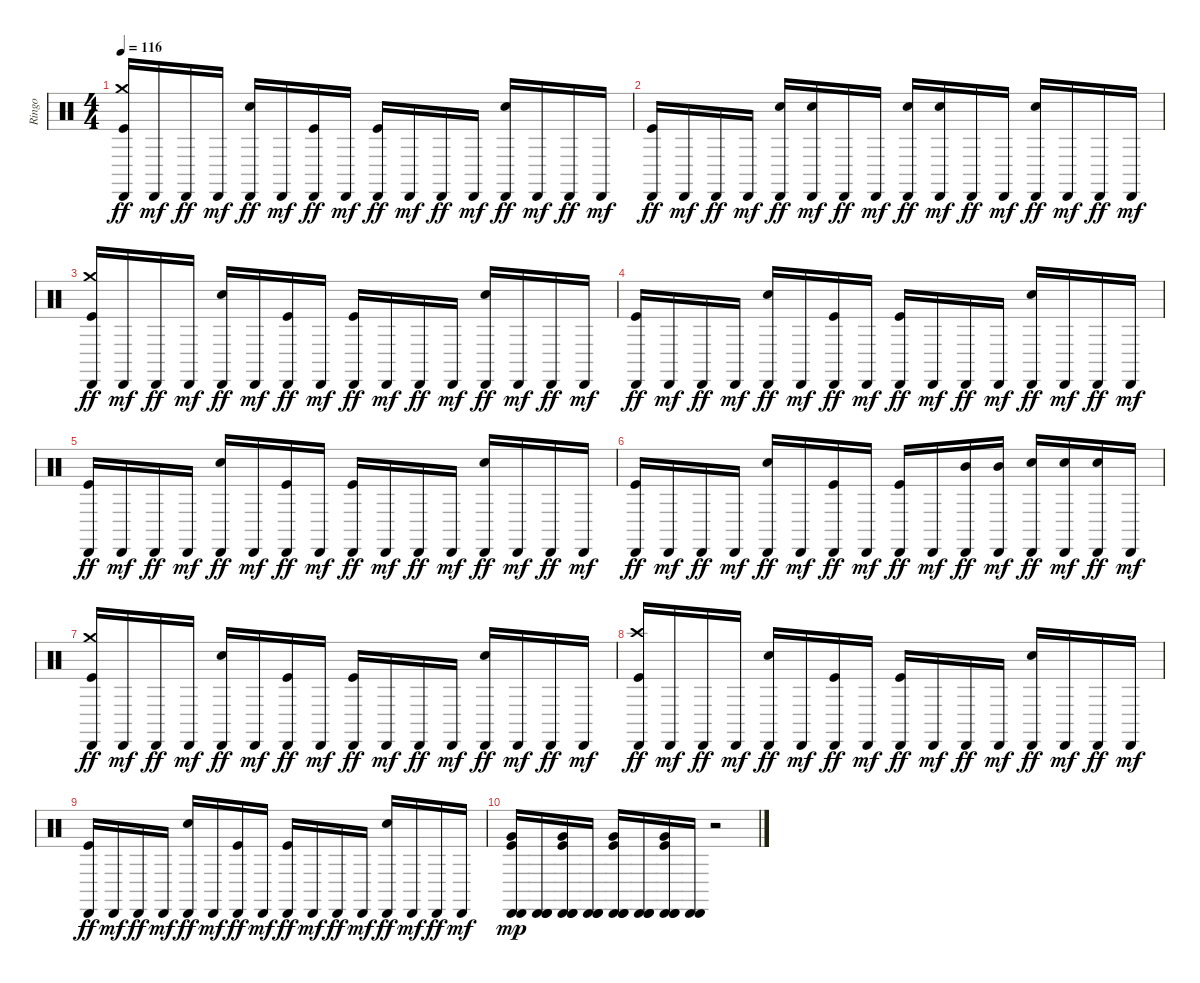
\track ("Ringo" "Ringo") {instrument percussion}
\staff {score}
\articulation defaults
\ts (4 4)
\tempo 116
\clef neutral
\ks c
("Cabasa (hit)" "Kick (hit)" "Crash medium (hit)").16{dy ff} "Cabasa (hit)".16{dy mf} "Cabasa (hit)".16{dy ff} "Cabasa (hit)".16{dy mf} ("Cabasa (hit)" "Snare (hit) 2").16{dy ff} "Cabasa (hit)".16{dy mf} ("Cabasa (hit)" "Kick (hit)").16{dy ff} "Cabasa (hit)".16{dy mf} ("Cabasa (hit)" "Kick (hit)").16{dy ff} "Cabasa (hit)".16{dy mf} "Cabasa (hit)".16{dy ff} "Cabasa (hit)".16{dy mf} ("Cabasa (hit)" "Snare (hit) 2").16{dy ff} "Cabasa (hit)".16{dy mf} "Cabasa (hit)".16{dy ff} "Cabasa (hit)".16{dy mf} |
("Cabasa (hit)" "Kick (hit)").16{dy ff} "Cabasa (hit)".16{dy mf} "Cabasa (hit)".16{dy ff} "Cabasa (hit)".16{dy mf} ("Cabasa (hit)" "Snare (hit) 2").16{dy ff} ("Cabasa (hit)" "Snare (hit) 2").16{dy mf} "Cabasa (hit)".16{dy ff} "Cabasa (hit)".16{dy mf} ("Cabasa (hit)" "Snare (hit) 2").16{dy ff} ("Cabasa (hit)" "Snare (hit) 2").16{dy mf} "Cabasa (hit)".16{dy ff} "Cabasa (hit)".16{dy mf} ("Cabasa (hit)" "Snare (hit) 2").16{dy ff} "Cabasa (hit)".16{dy mf} "Cabasa (hit)".16{dy ff} "Cabasa (hit)".16{dy mf} |
("Cabasa (hit)" "Kick (hit)" "Crash medium (hit)").16{dy ff} "Cabasa (hit)".16{dy mf} "Cabasa (hit)".16{dy ff} "Cabasa (hit)".16{dy mf} ("Cabasa (hit)" "Snare (hit) 2").16{dy ff} "Cabasa (hit)".16{dy mf} ("Cabasa (hit)" "Kick (hit)").16{dy ff} "Cabasa (hit)".16{dy mf} ("Cabasa (hit)" "Kick (hit)").16{dy ff} "Cabasa (hit)".16{dy mf} "Cabasa (hit)".16{dy ff} "Cabasa (hit)".16{dy mf} ("Cabasa (hit)" "Snare (hit) 2").16{dy ff} "Cabasa (hit)".16{dy mf} "Cabasa (hit)".16{dy ff} "Cabasa (hit)".16{dy mf} |
("Cabasa (hit)" "Kick (hit)").16{dy ff} "Cabasa (hit)".16{dy mf} "Cabasa (hit)".16{dy ff} "Cabasa (hit)".16{dy mf} ("Cabasa (hit)" "Snare (hit) 2").16{dy ff} "Cabasa (hit)".16{dy mf} ("Cabasa (hit)" "Kick (hit)").16{dy ff} "Cabasa (hit)".16{dy mf} ("Cabasa (hit)" "Kick (hit)").16{dy ff} "Cabasa (hit)".16{dy mf} "Cabasa (hit)".16{dy ff} "Cabasa (hit)".16{dy mf} ("Cabasa (hit)" "Snare (hit) 2").16{dy ff} "Cabasa (hit)".16{dy mf} "Cabasa (hit)".16{dy ff} "Cabasa (hit)".16{dy mf} |
("Cabasa (hit)" "Kick (hit)").16{dy ff} "Cabasa (hit)".16{dy mf} "Cabasa (hit)".16{dy ff} "Cabasa (hit)".16{dy mf} ("Cabasa (hit)" "Snare (hit) 2").16{dy ff} "Cabasa (hit)".16{dy mf} ("Cabasa (hit)" "Kick (hit)").16{dy ff} "Cabasa (hit)".16{dy mf} ("Cabasa (hit)" "Kick (hit)").16{dy ff} "Cabasa (hit)".16{dy mf} "Cabasa (hit)".16{dy ff} "Cabasa (hit)".16{dy mf} ("Cabasa (hit)" "Snare (hit) 2").16{dy ff} "Cabasa (hit)".16{dy mf} "Cabasa (hit)".16{dy ff} "Cabasa (hit)".16{dy mf} |
("Cabasa (hit)" "Kick (hit)").16{dy ff} "Cabasa (hit)".16{dy mf} "Cabasa (hit)".16{dy ff} "Cabasa (hit)".16{dy mf} ("Cabasa (hit)" "Snare (hit) 2").16{dy ff} "Cabasa (hit)".16{dy mf} ("Cabasa (hit)" "Kick (hit)").16{dy ff} "Cabasa (hit)".16{dy mf} ("Cabasa (hit)" "Kick (hit)").16{dy ff} "Cabasa (hit)".16{dy mf} ("Cabasa (hit)" "Mid Tom (hit)").16{dy ff} ("Cabasa (hit)" "Mid Tom (hit)").16{dy mf} ("Cabasa (hit)" "Snare (hit) 2").16{dy ff} ("Cabasa (hit)" "Snare (hit) 2").16{dy mf} ("Cabasa (hit)" "Snare (hit) 2").16{dy ff} "Cabasa (hit)".16{dy mf} |
("Cabasa (hit)" "Crash medium (hit)" "Kick (hit)").16{dy ff} "Cabasa (hit)".16{dy mf} "Cabasa (hit)".16{dy ff} "Cabasa (hit)".16{dy mf} ("Cabasa (hit)" "Snare (hit) 2").16{dy ff} "Cabasa (hit)".16{dy mf} ("Cabasa (hit)" "Kick (hit)").16{dy ff} "Cabasa (hit)".16{dy mf} ("Cabasa (hit)" "Kick (hit)").16{dy ff} "Cabasa (hit)".16{dy mf} "Cabasa (hit)".16{dy ff} "Cabasa (hit)".16{dy mf} ("Cabasa (hit)" "Snare (hit) 2").16{dy ff} "Cabasa (hit)".16{dy mf} "Cabasa (hit)".16{dy ff} "Cabasa (hit)".16{dy mf} |
("Cabasa (hit)" "Crash high (hit)" "Kick (hit)").16{dy ff} "Cabasa (hit)".16{dy mf} "Cabasa (hit)".16{dy ff} "Cabasa (hit)".16{dy mf} ("Cabasa (hit)" "Snare (hit) 2").16{dy ff} "Cabasa (hit)".16{dy mf} ("Cabasa (hit)" "Kick (hit)").16{dy ff} "Cabasa (hit)".16{dy mf} ("Cabasa (hit)" "Kick (hit)").16{dy ff} "Cabasa (hit)".16{dy mf} "Cabasa (hit)".16{dy ff} "Cabasa (hit)".16{dy mf} ("Cabasa (hit)" "Snare (hit) 2").16{dy ff} "Cabasa (hit)".16{dy mf} "Cabasa (hit)".16{dy ff} "Cabasa (hit)".16{dy mf} |
("Cabasa (hit)" "Kick (hit)").16{dy ff} "Cabasa (hit)".16{dy mf} "Cabasa (hit)".16{dy ff} "Cabasa (hit)".16{dy mf} ("Cabasa (hit)" "Snare (hit) 2").16{dy ff} "Cabasa (hit)".16{dy mf} ("Cabasa (hit)" "Kick (hit)").16{dy ff} "Cabasa (hit)".16{dy mf} ("Cabasa (hit)" "Kick (hit)").16{dy ff} "Cabasa (hit)".16{dy mf} "Cabasa (hit)".16{dy ff} "Cabasa (hit)".16{dy mf} ("Cabasa (hit)" "Snare (hit) 2").16{dy ff} "Cabasa (hit)".16{dy mf} "Cabasa (hit)".16{dy ff} "Cabasa (hit)".16{dy mf} |
("Cabasa (hit)" "Very Low Tom (hit)" "Kick (hit)" "Cabasa (hit)").16{dy mp} ("Cabasa (hit)" "Cabasa (hit)" "Cabasa (hit)").16 ("Cabasa (hit)" "Cabasa (hit)" "Kick (hit)" "Very Low Tom (hit)" "Cabasa (hit)").16 ("Cabasa (hit)" "Cabasa (hit)" "Cabasa (hit)").16 ("Cabasa (hit)" "Cabasa (hit)" "Kick (hit)" "Very Low Tom (hit)" "Cabasa (hit)").16 ("Cabasa (hit)" "Cabasa (hit)" "Cabasa (hit)").16 ("Cabasa (hit)" "Cabasa (hit)" "Very Low Tom (hit)" "Kick (hit)" "Cabasa (hit)").16 ("Cabasa (hit)" "Cabasa (hit)").16 r.2
